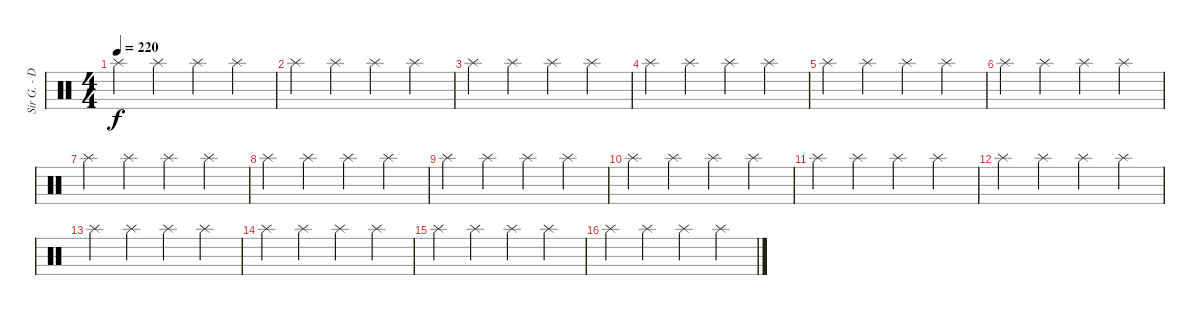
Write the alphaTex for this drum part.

\track ("Sir G. - Drums" "Sir G. - D") {instrument percussion}
\staff {score}
\articulation defaults
\ts (4 4)
\tempo 220
\clef neutral
\ks c "Splash (hit)".4{dy f} "Splash (hit)".4 "Splash (hit)".4 "Splash (hit)".4
|
"Splash (hit)".4 "Splash (hit)".4 "Splash (hit)".4 "Splash (hit)".4 |
"Splash (hit)".4 "Splash (hit)".4 "Splash (hit)".4 "Splash (hit)".4 |
"Splash (hit)".4 "Splash (hit)".4 "Splash (hit)".4 "Splash (hit)".4 |
"Splash (hit)".4 "Splash (hit)".4 "Splash (hit)".4 "Splash (hit)".4 |
"Splash (hit)".4 "Splash (hit)".4 "Splash (hit)".4 "Splash (hit)".4 |
"Splash (hit)".4 "Splash (hit)".4 "Splash (hit)".4 "Splash (hit)".4 |
"Splash (hit)".4 "Splash (hit)".4 "Splash (hit)".4 "Splash (hit)".4 |
"Splash (hit)".4 "Splash (hit)".4 "Splash (hit)".4 "Splash (hit)".4 |
"Splash (hit)".4 "Splash (hit)".4 "Splash (hit)".4 "Splash (hit)".4 |
"Splash (hit)".4 "Splash (hit)".4 "Splash (hit)".4 "Splash (hit)".4 |
"Splash (hit)".4 "Splash (hit)".4 "Splash (hit)".4 "Splash (hit)".4 |
"Splash (hit)".4 "Splash (hit)".4 "Splash (hit)".4 "Splash (hit)".4 |
"Splash (hit)".4 "Splash (hit)".4 "Splash (hit)".4 "Splash (hit)".4 |
"Splash (hit)".4 "Splash (hit)".4 "Splash (hit)".4 "Splash (hit)".4 |
"Splash (hit)".4 "Splash (hit)".4 "Splash (hit)".4 "Splash (hit)".4
